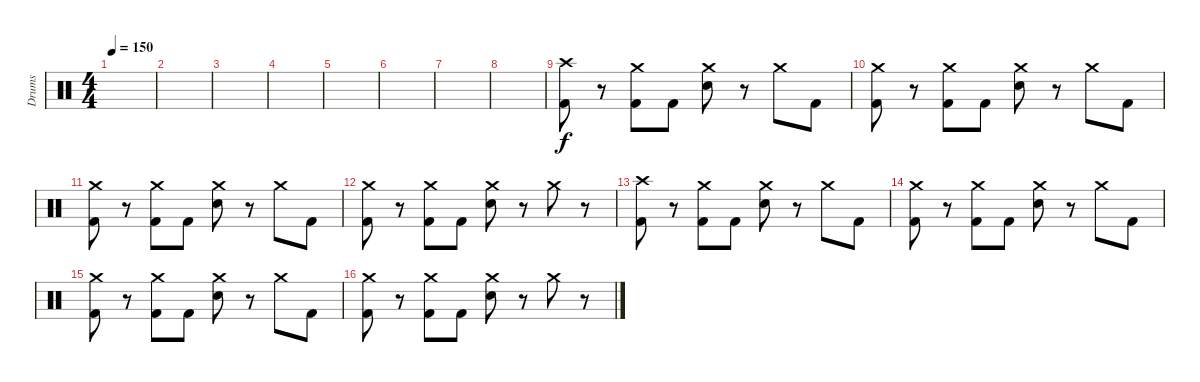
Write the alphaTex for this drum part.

\track ("Drums" "Drums") {instrument percussion}
\staff {score}
\articulation defaults
\ts (4 4)
\tempo 150
\clef neutral
\ks c
|
|
|
|
|
|
|
|
("Crash high (hit)" "Kick (hit) 2").8 r.8 ("Crash medium (hit)" "Kick (hit) 2").8 "Kick (hit) 2".8 ("Crash medium (hit)" "Snare (hit) 2").8 r.8 "Crash medium (hit)".8 "Kick (hit) 2".8 |
("Crash medium (hit)" "Kick (hit) 2").8 r.8 ("Crash medium (hit)" "Kick (hit) 2").8 "Kick (hit) 2".8 ("Crash medium (hit)" "Snare (hit) 2").8 r.8 "Crash medium (hit)".8 "Kick (hit) 2".8 |
("Crash medium (hit)" "Kick (hit) 2").8 r.8 ("Crash medium (hit)" "Kick (hit) 2").8 "Kick (hit) 2".8 ("Crash medium (hit)" "Snare (hit) 2").8 r.8 "Crash medium (hit)".8 "Kick (hit) 2".8 |
("Crash medium (hit)" "Kick (hit) 2").8 r.8 ("Crash medium (hit)" "Kick (hit) 2").8 "Kick (hit) 2".8 ("Crash medium (hit)" "Snare (hit) 2").8 r.8 "Crash medium (hit)".8 r.8 |
("Crash high (hit)" "Kick (hit) 2").8 r.8 ("Crash medium (hit)" "Kick (hit) 2").8 "Kick (hit) 2".8 ("Crash medium (hit)" "Snare (hit) 2").8 r.8 "Crash medium (hit)".8 "Kick (hit) 2".8 |
("Crash medium (hit)" "Kick (hit) 2").8 r.8 ("Crash medium (hit)" "Kick (hit) 2").8 "Kick (hit) 2".8 ("Crash medium (hit)" "Snare (hit) 2").8 r.8 "Crash medium (hit)".8 "Kick (hit) 2".8 |
("Crash medium (hit)" "Kick (hit) 2").8 r.8 ("Crash medium (hit)" "Kick (hit) 2").8 "Kick (hit) 2".8 ("Crash medium (hit)" "Snare (hit) 2").8 r.8 "Crash medium (hit)".8 "Kick (hit) 2".8 |
("Crash medium (hit)" "Kick (hit) 2").8 r.8 ("Crash medium (hit)" "Kick (hit) 2").8 "Kick (hit) 2".8 ("Crash medium (hit)" "Snare (hit) 2").8 r.8 "Crash medium (hit)".8 r.8
